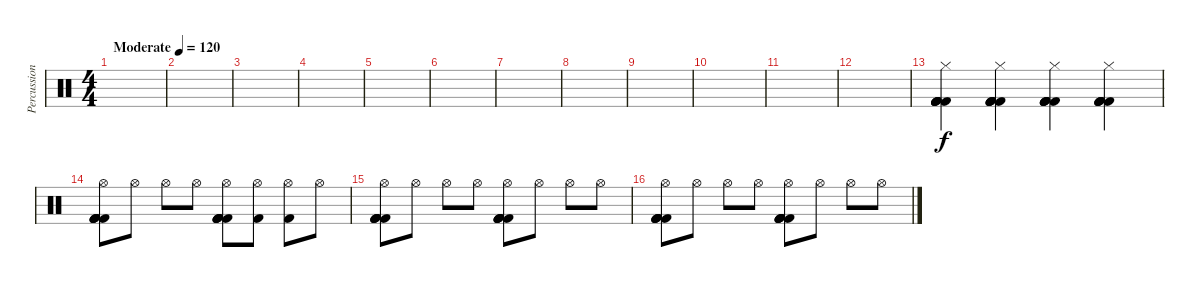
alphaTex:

\track ("Percussion" "Percussion") {mute instrument percussion}
\staff {score}
\articulation defaults
\ts (4 4)
\tempo (120 "Moderate")
\clef neutral
\ks c
|
|
|
|
|
|
|
|
|
|
|
|
("Kick (hit) 2" "Hi-Hat (closed)" "Kick (hit) 2" "Kick (hit) 2" "Kick (hit) 2" "Kick (hit) 2").4 ("Kick (hit) 2" "Hi-Hat (closed)" "Kick (hit) 2" "Kick (hit) 2" "Kick (hit) 2" "Kick (hit) 2").4 ("Kick (hit) 2" "Hi-Hat (closed)" "Kick (hit) 2" "Kick (hit) 2" "Kick (hit) 2" "Kick (hit) 2").4 ("Kick (hit) 2" "Hi-Hat (closed)" "Kick (hit) 2" "Kick (hit) 2" "Kick (hit) 2" "Kick (hit) 2").4 |
("Kick (hit) 2" "Hi-Hat (open)" "Kick (hit) 2" "Kick (hit) 2" "Kick (hit) 2" "Kick (hit) 2").8 "Hi-Hat (open)".8 "Hi-Hat (open)".8 "Hi-Hat (open)".8 ("Kick (hit) 2" "Hi-Hat (open)" "Kick (hit) 2" "Kick (hit) 2" "Kick (hit) 2" "Kick (hit) 2").8 ("Hi-Hat (open)" "Kick (hit) 2").8 ("Hi-Hat (open)" "Kick (hit) 2").8 "Hi-Hat (open)".8 |
("Kick (hit) 2" "Hi-Hat (open)" "Kick (hit) 2" "Kick (hit) 2" "Kick (hit) 2" "Kick (hit) 2").8 "Hi-Hat (open)".8 "Hi-Hat (open)".8 "Hi-Hat (open)".8 ("Kick (hit) 2" "Hi-Hat (open)" "Kick (hit) 2" "Kick (hit) 2" "Kick (hit) 2" "Kick (hit) 2").8 "Hi-Hat (open)".8 "Hi-Hat (open)".8 "Hi-Hat (open)".8 |
("Kick (hit) 2" "Hi-Hat (open)" "Kick (hit) 2" "Kick (hit) 2" "Kick (hit) 2" "Kick (hit) 2").8 "Hi-Hat (open)".8 "Hi-Hat (open)".8 "Hi-Hat (open)".8 ("Kick (hit) 2" "Hi-Hat (open)" "Kick (hit) 2" "Kick (hit) 2" "Kick (hit) 2" "Kick (hit) 2").8 "Hi-Hat (open)".8 "Hi-Hat (open)".8 "Hi-Hat (open)".8
